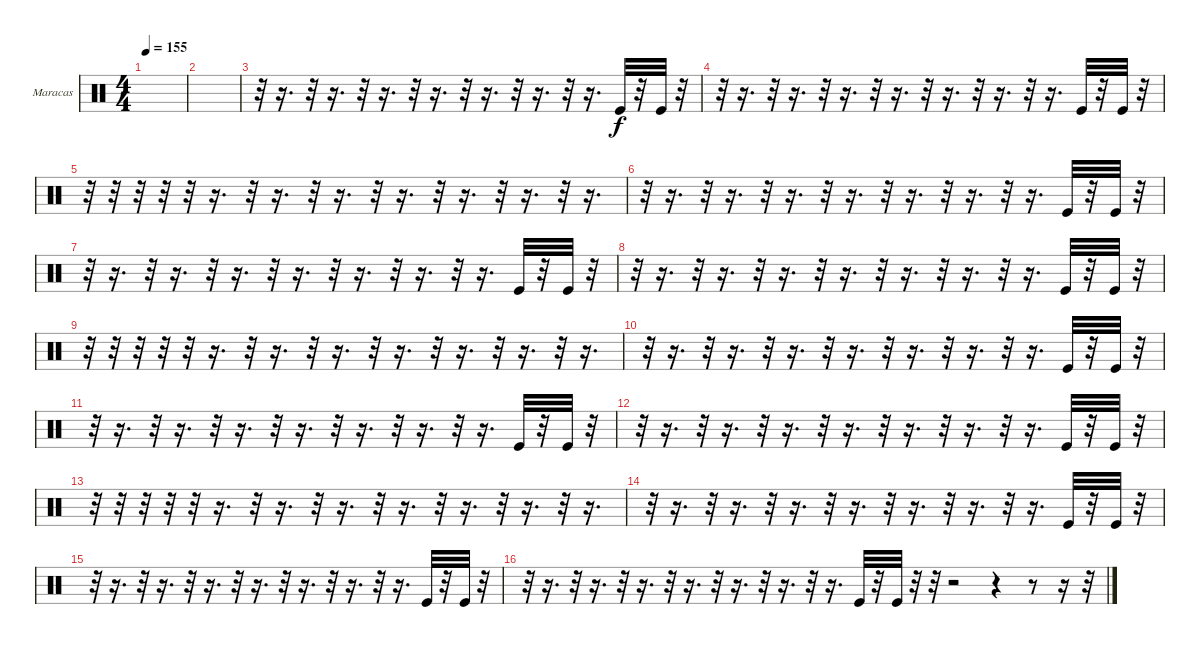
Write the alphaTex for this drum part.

\bracketExtendMode groupsimilarinstruments
\firstSystemTrackNameOrientation horizontal
\otherSystemsTrackNameOrientation horizontal
\track ("Е. Кулаков" "Maracas") {instrument percussion}
\staff {score}
\articulation defaults
\ts (4 4)
\tempo 155
\clef neutral
\ks c
|
|
r.32 r.16{d} r.32 r.16{d} r.32 r.16{d} r.32 r.16{d} r.32 r.16{d} r.32 r.16{d} r.32 r.16{d} "Kick (hit)".32 r.32 "Kick (hit)".32 r.32 |
r.32 r.16{d} r.32 r.16{d} r.32 r.16{d} r.32 r.16{d} r.32 r.16{d} r.32 r.16{d} r.32 r.16{d} "Kick (hit)".32 r.32 "Kick (hit)".32 r.32 |
r.32 r.32 r.32 r.32 r.32 r.16{d} r.32 r.16{d} r.32 r.16{d} r.32 r.16{d} r.32 r.16{d} r.32 r.16{d} r.32 r.16{d} |
r.32 r.16{d} r.32 r.16{d} r.32 r.16{d} r.32 r.16{d} r.32 r.16{d} r.32 r.16{d} r.32 r.16{d} "Kick (hit)".32 r.32 "Kick (hit)".32 r.32 |
r.32 r.16{d} r.32 r.16{d} r.32 r.16{d} r.32 r.16{d} r.32 r.16{d} r.32 r.16{d} r.32 r.16{d} "Kick (hit)".32 r.32 "Kick (hit)".32 r.32 |
r.32 r.16{d} r.32 r.16{d} r.32 r.16{d} r.32 r.16{d} r.32 r.16{d} r.32 r.16{d} r.32 r.16{d} "Kick (hit)".32 r.32 "Kick (hit)".32 r.32 |
r.32 r.32 r.32 r.32 r.32 r.16{d} r.32 r.16{d} r.32 r.16{d} r.32 r.16{d} r.32 r.16{d} r.32 r.16{d} r.32 r.16{d} |
r.32 r.16{d} r.32 r.16{d} r.32 r.16{d} r.32 r.16{d} r.32 r.16{d} r.32 r.16{d} r.32 r.16{d} "Kick (hit)".32 r.32 "Kick (hit)".32 r.32 |
r.32 r.16{d} r.32 r.16{d} r.32 r.16{d} r.32 r.16{d} r.32 r.16{d} r.32 r.16{d} r.32 r.16{d} "Kick (hit)".32 r.32 "Kick (hit)".32 r.32 |
r.32 r.16{d} r.32 r.16{d} r.32 r.16{d} r.32 r.16{d} r.32 r.16{d} r.32 r.16{d} r.32 r.16{d} "Kick (hit)".32 r.32 "Kick (hit)".32 r.32 |
r.32 r.32 r.32 r.32 r.32 r.16{d} r.32 r.16{d} r.32 r.16{d} r.32 r.16{d} r.32 r.16{d} r.32 r.16{d} r.32 r.16{d} |
r.32 r.16{d} r.32 r.16{d} r.32 r.16{d} r.32 r.16{d} r.32 r.16{d} r.32 r.16{d} r.32 r.16{d} "Kick (hit)".32 r.32 "Kick (hit)".32 r.32 |
r.32 r.16{d} r.32 r.16{d} r.32 r.16{d} r.32 r.16{d} r.32 r.16{d} r.32 r.16{d} r.32 r.16{d} "Kick (hit)".32 r.32 "Kick (hit)".32 r.32 |
r.32 r.16{d} r.32 r.16{d} r.32 r.16{d} r.32 r.16{d} r.32 r.16{d} r.32 r.16{d} r.32 r.16{d} "Kick (hit)".32 r.32 "Kick (hit)".32 r.32 r.32 r.2 r.4 r.8 r.16 r.32
